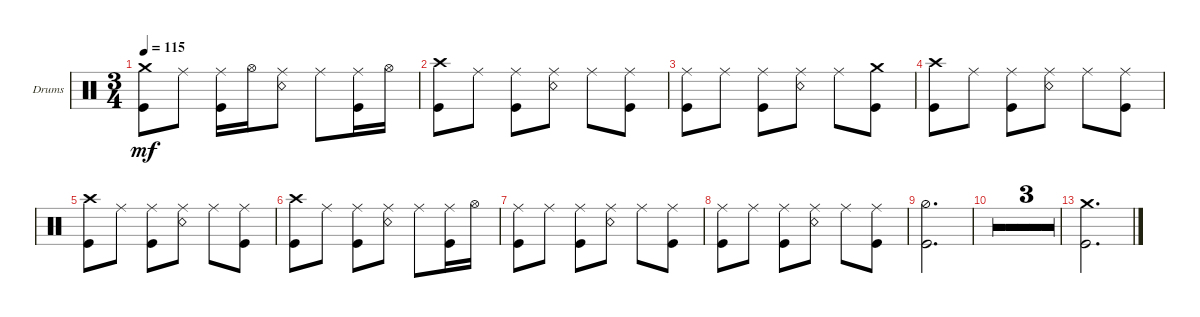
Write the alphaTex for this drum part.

\defaultSystemsLayout 4
\bracketExtendMode groupsimilarinstruments
\firstSystemTrackNameOrientation horizontal
\otherSystemsTrackNameOrientation horizontal
\track ("Drumkit" "Drums") {multiBarRest instrument percussion}
\staff {score}
\articulation defaults
\ts (3 4)
\tempo 115
\clef neutral
\ks aminor
("Kick (hit)" "Crash medium (hit)").8{dy mf} "Ride (middle)".8 ("Ride (middle)" "Kick (hit)").16 "Hi-Hat (open)".16 ("Ride (middle)" "Snare (rim shot)").8 "Ride (middle)".8 ("Ride (middle)" "Kick (hit)").16 "Hi-Hat (open)".16 |
("Kick (hit)" "Crash high (hit)").8 "Ride (middle)".8 ("Ride (middle)" "Kick (hit)").8 ("Ride (middle)" "Snare (rim shot)").8 "Ride (middle)".8 ("Ride (middle)" "Kick (hit)").8 |
("Kick (hit)" "Ride (middle)").8 "Ride (middle)".8 ("Ride (middle)" "Kick (hit)").8 ("Ride (middle)" "Snare (rim shot)").8 "Ride (middle)".8 ("Kick (hit)" "Crash medium (hit)").8 |
("Kick (hit)" "Crash high (hit)").8 "Ride (middle)".8 ("Ride (middle)" "Kick (hit)").8 ("Ride (middle)" "Snare (rim shot)").8 "Ride (middle)".8 ("Ride (middle)" "Kick (hit)").8 |
("Kick (hit)" "Crash high (hit)").8 "Ride (middle)".8 ("Ride (middle)" "Kick (hit)").8 ("Ride (middle)" "Snare (rim shot)").8 "Ride (middle)".8 ("Ride (middle)" "Kick (hit)").8 |
("Kick (hit)" "Crash high (hit)").8 "Ride (middle)".8 ("Ride (middle)" "Kick (hit)").8 ("Ride (middle)" "Snare (rim shot)").8 "Ride (middle)".8 ("Ride (middle)" "Kick (hit)").16 "Hi-Hat (open)".16 |
("Kick (hit)" "Ride (middle)").8 "Ride (middle)".8 ("Ride (middle)" "Kick (hit)").8 ("Ride (middle)" "Snare (rim shot)").8 "Ride (middle)".8 ("Ride (middle)" "Kick (hit)").8 |
("Kick (hit)" "Ride (middle)").8 "Ride (middle)".8 ("Ride (middle)" "Kick (hit)").8 ("Ride (middle)" "Snare (rim shot)").8 "Ride (middle)".8 ("Ride (middle)" "Kick (hit)").8 |
("Kick (hit)" "Hi-Hat (half)").2{d} |
|
|
|
("Kick (hit)" "Crash medium (hit)").2{d}
